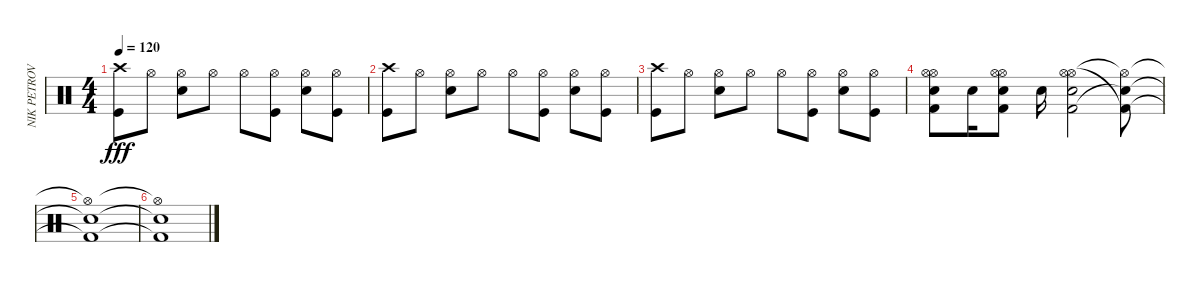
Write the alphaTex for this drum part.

\track ("NIK PETROV" "NIK PETROV") {instrument percussion}
\staff {score}
\articulation defaults
\ts (4 4)
\tempo 120
\clef neutral
\ks c
("Crash high (hit)" "Kick (hit)").8{dy fff} "Hi-Hat (open)".8 ("Hi-Hat (open)" "Snare (hit) 2").8 "Hi-Hat (open)".8 "Hi-Hat (open)".8 ("Hi-Hat (open)" "Kick (hit)").8 ("Hi-Hat (open)" "Snare (hit) 2").8 ("Hi-Hat (open)" "Kick (hit)").8 |
("Crash high (hit)" "Kick (hit)").8 "Hi-Hat (open)".8 ("Hi-Hat (open)" "Snare (hit) 2").8 "Hi-Hat (open)".8 "Hi-Hat (open)".8 ("Hi-Hat (open)" "Kick (hit)").8 ("Hi-Hat (open)" "Snare (hit) 2").8 ("Hi-Hat (open)" "Kick (hit)").8 |
("Crash high (hit)" "Kick (hit)").8 "Hi-Hat (open)".8 ("Hi-Hat (open)" "Snare (hit) 2").8 "Hi-Hat (open)".8 "Hi-Hat (open)".8 ("Hi-Hat (open)" "Kick (hit)").8 ("Hi-Hat (open)" "Snare (hit) 2").8 ("Hi-Hat (open)" "Kick (hit)").8 |
("Hi-Hat (open)" "Hi-Hat (open)" "Kick (hit) 2" "Snare (hit) 2").8 "Electric Snare (hit)".16 ("Hi-Hat (open)" "Hi-Hat (open)" "Kick (hit) 2" "Snare (hit) 2").8 "Electric Snare (hit)".16 ("Hi-Hat (open)" "Hi-Hat (open)" "Kick (hit) 2" "Snare (hit) 2").2 ("Hi-Hat (open)"{t} "Kick (hit) 2"{t} "Snare (hit) 2"{t}).8 |
("Hi-Hat (open)"{t} "Kick (hit) 2"{t} "Snare (hit) 2"{t}).1 |
("Hi-Hat (open)"{t} "Kick (hit) 2"{t} "Snare (hit) 2"{t}).1
